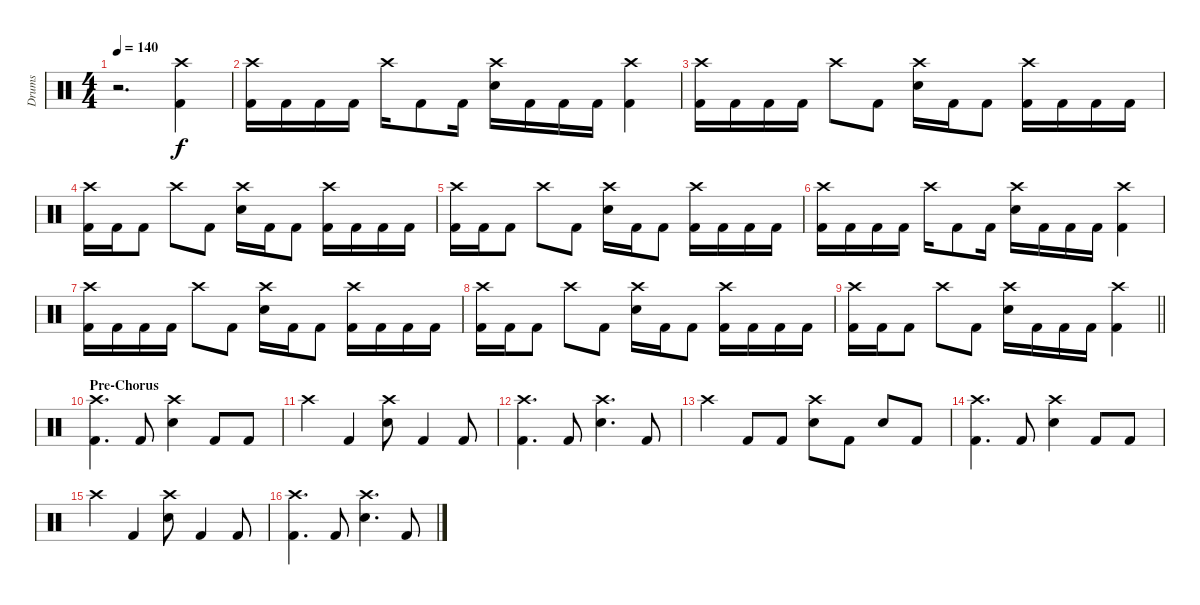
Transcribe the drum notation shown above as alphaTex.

\track ("Drums" "Drums") {instrument percussion}
\staff {score}
\articulation defaults
\ts (4 4)
\tempo 140
\clef neutral
\ks c
r.2{d dy f} ("Crash high (hit)" "Kick (hit) 2").4 |
("Crash high (hit)" "Kick (hit) 2").16 "Kick (hit) 2".16 "Kick (hit) 2".16 "Kick (hit) 2".16 "Crash high (hit)".16 "Kick (hit) 2".8 "Kick (hit) 2".16 ("Crash high (hit)" "Electric Snare (hit)").16 "Kick (hit) 2".16 "Kick (hit) 2".16 "Kick (hit) 2".16 ("Crash high (hit)" "Kick (hit) 2").4 |
("Crash high (hit)" "Kick (hit) 2").16 "Kick (hit) 2".16 "Kick (hit) 2".16 "Kick (hit) 2".16 "Crash high (hit)".8 "Kick (hit) 2".8 ("Crash high (hit)" "Electric Snare (hit)").16 "Kick (hit) 2".16 "Kick (hit) 2".8 ("Crash high (hit)" "Kick (hit) 2").16 "Kick (hit) 2".16 "Kick (hit) 2".16 "Kick (hit) 2".16 |
("Crash high (hit)" "Kick (hit) 2").16 "Kick (hit) 2".16 "Kick (hit) 2".8 "Crash high (hit)".8 "Kick (hit) 2".8 ("Crash high (hit)" "Electric Snare (hit)").16 "Kick (hit) 2".16 "Kick (hit) 2".8 ("Crash high (hit)" "Kick (hit) 2").16 "Kick (hit) 2".16 "Kick (hit) 2".16 "Kick (hit) 2".16 |
("Crash high (hit)" "Kick (hit) 2").16 "Kick (hit) 2".16 "Kick (hit) 2".8 "Crash high (hit)".8 "Kick (hit) 2".8 ("Crash high (hit)" "Electric Snare (hit)").16 "Kick (hit) 2".16 "Kick (hit) 2".8 ("Crash high (hit)" "Kick (hit) 2").16 "Kick (hit) 2".16 "Kick (hit) 2".16 "Kick (hit) 2".16 |
("Crash high (hit)" "Kick (hit) 2").16 "Kick (hit) 2".16 "Kick (hit) 2".16 "Kick (hit) 2".16 "Crash high (hit)".16 "Kick (hit) 2".8 "Kick (hit) 2".16 ("Crash high (hit)" "Electric Snare (hit)").16 "Kick (hit) 2".16 "Kick (hit) 2".16 "Kick (hit) 2".16 ("Crash high (hit)" "Kick (hit) 2").4 |
("Crash high (hit)" "Kick (hit) 2").16 "Kick (hit) 2".16 "Kick (hit) 2".16 "Kick (hit) 2".16 "Crash high (hit)".8 "Kick (hit) 2".8 ("Crash high (hit)" "Electric Snare (hit)").16 "Kick (hit) 2".16 "Kick (hit) 2".8 ("Crash high (hit)" "Kick (hit) 2").16 "Kick (hit) 2".16 "Kick (hit) 2".16 "Kick (hit) 2".16 |
("Crash high (hit)" "Kick (hit) 2").16 "Kick (hit) 2".16 "Kick (hit) 2".8 "Crash high (hit)".8 "Kick (hit) 2".8 ("Crash high (hit)" "Electric Snare (hit)").16 "Kick (hit) 2".16 "Kick (hit) 2".8 ("Crash high (hit)" "Kick (hit) 2").16 "Kick (hit) 2".16 "Kick (hit) 2".16 "Kick (hit) 2".16 |
\barLineRight lightlight
("Crash high (hit)" "Kick (hit) 2").16 "Kick (hit) 2".16 "Kick (hit) 2".8 "Crash high (hit)".8 "Kick (hit) 2".8 ("Crash high (hit)" "Electric Snare (hit)").16 "Kick (hit) 2".16 "Kick (hit) 2".16 "Kick (hit) 2".16 ("Crash high (hit)" "Kick (hit) 2").4 |
\section ("" "Pre-Chorus")
("Crash high (hit)" "Kick (hit) 2").4{d} "Kick (hit) 2".8 ("Crash high (hit)" "Electric Snare (hit)").4 "Kick (hit) 2".8 "Kick (hit) 2".8 |
"Crash high (hit)".4 "Kick (hit) 2".4 ("Crash high (hit)" "Electric Snare (hit)").8 "Kick (hit) 2".4 "Kick (hit) 2".8 |
("Crash high (hit)" "Kick (hit) 2").4{d} "Kick (hit) 2".8 ("Crash high (hit)" "Electric Snare (hit)").4{d} "Kick (hit) 2".8 |
"Crash high (hit)".4 "Kick (hit) 2".8 "Kick (hit) 2".8 ("Crash high (hit)" "Electric Snare (hit)").8 "Kick (hit) 2".8 "Electric Snare (hit)".8 "Kick (hit) 2".8 |
("Crash high (hit)" "Kick (hit) 2").4{d} "Kick (hit) 2".8 ("Crash high (hit)" "Electric Snare (hit)").4 "Kick (hit) 2".8 "Kick (hit) 2".8 |
"Crash high (hit)".4 "Kick (hit) 2".4 ("Crash high (hit)" "Electric Snare (hit)").8 "Kick (hit) 2".4 "Kick (hit) 2".8 |
("Crash high (hit)" "Kick (hit) 2").4{d} "Kick (hit) 2".8 ("Crash high (hit)" "Electric Snare (hit)").4{d} "Kick (hit) 2".8
